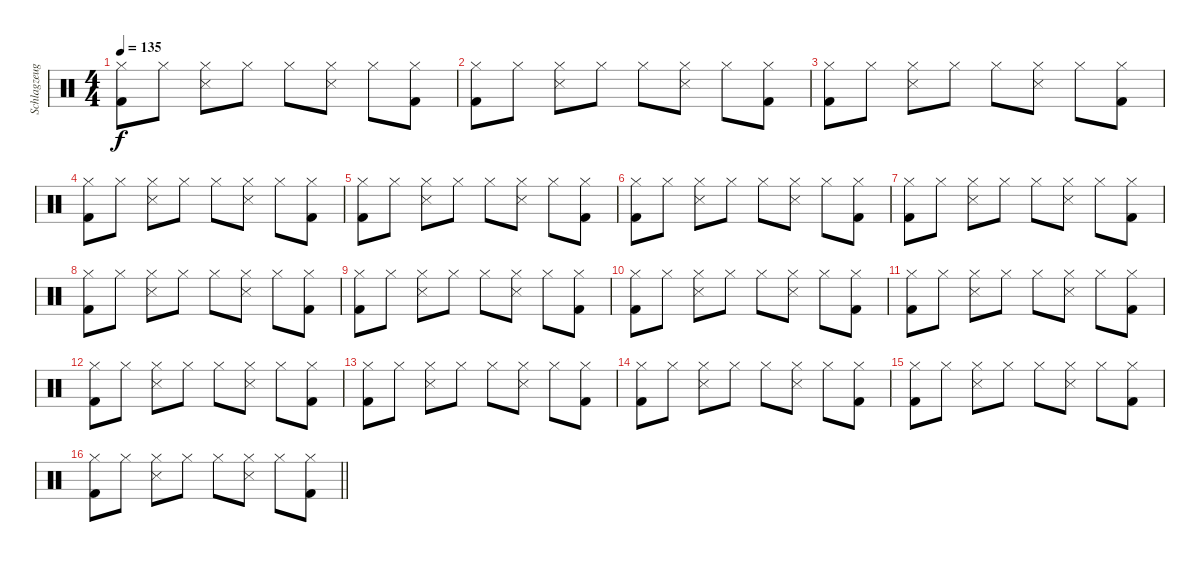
\track ("Schlagzeug" "Schlagzeug") {instrument percussion}
\staff {score}
\articulation defaults
\ts (4 4)
\tempo 135
\clef neutral
\ks c
("Hi-Hat (closed)" "Kick (hit) 2").8{dy f} "Hi-Hat (closed)".8 ("Hi-Hat (closed)" "Snare (side stick) 3").8 "Hi-Hat (closed)".8 "Hi-Hat (closed)".8 ("Hi-Hat (closed)" "Snare (side stick) 3").8 "Hi-Hat (closed)".8 ("Hi-Hat (closed)" "Kick (hit) 2").8 |
("Hi-Hat (closed)" "Kick (hit) 2").8 "Hi-Hat (closed)".8 ("Hi-Hat (closed)" "Snare (side stick) 3").8 "Hi-Hat (closed)".8 "Hi-Hat (closed)".8 ("Hi-Hat (closed)" "Snare (side stick) 3").8 "Hi-Hat (closed)".8 ("Hi-Hat (closed)" "Kick (hit) 2").8 |
("Hi-Hat (closed)" "Kick (hit) 2").8 "Hi-Hat (closed)".8 ("Hi-Hat (closed)" "Snare (side stick) 3").8 "Hi-Hat (closed)".8 "Hi-Hat (closed)".8 ("Hi-Hat (closed)" "Snare (side stick) 3").8 "Hi-Hat (closed)".8 ("Hi-Hat (closed)" "Kick (hit) 2").8 |
("Hi-Hat (closed)" "Kick (hit) 2").8 "Hi-Hat (closed)".8 ("Hi-Hat (closed)" "Snare (side stick) 3").8 "Hi-Hat (closed)".8 "Hi-Hat (closed)".8 ("Hi-Hat (closed)" "Snare (side stick) 3").8 "Hi-Hat (closed)".8 ("Hi-Hat (closed)" "Kick (hit) 2").8 |
("Hi-Hat (closed)" "Kick (hit) 2").8 "Hi-Hat (closed)".8 ("Hi-Hat (closed)" "Snare (side stick) 3").8 "Hi-Hat (closed)".8 "Hi-Hat (closed)".8 ("Hi-Hat (closed)" "Snare (side stick) 3").8 "Hi-Hat (closed)".8 ("Hi-Hat (closed)" "Kick (hit) 2").8 |
("Hi-Hat (closed)" "Kick (hit) 2").8 "Hi-Hat (closed)".8 ("Hi-Hat (closed)" "Snare (side stick) 3").8 "Hi-Hat (closed)".8 "Hi-Hat (closed)".8 ("Hi-Hat (closed)" "Snare (side stick) 3").8 "Hi-Hat (closed)".8 ("Hi-Hat (closed)" "Kick (hit) 2").8 |
("Hi-Hat (closed)" "Kick (hit) 2").8 "Hi-Hat (closed)".8 ("Hi-Hat (closed)" "Snare (side stick) 3").8 "Hi-Hat (closed)".8 "Hi-Hat (closed)".8 ("Hi-Hat (closed)" "Snare (side stick) 3").8 "Hi-Hat (closed)".8 ("Hi-Hat (closed)" "Kick (hit) 2").8 |
("Hi-Hat (closed)" "Kick (hit) 2").8 "Hi-Hat (closed)".8 ("Hi-Hat (closed)" "Snare (side stick) 3").8 "Hi-Hat (closed)".8 "Hi-Hat (closed)".8 ("Hi-Hat (closed)" "Snare (side stick) 3").8 "Hi-Hat (closed)".8 ("Hi-Hat (closed)" "Kick (hit) 2").8 |
("Hi-Hat (closed)" "Kick (hit) 2").8 "Hi-Hat (closed)".8 ("Hi-Hat (closed)" "Snare (side stick) 3").8 "Hi-Hat (closed)".8 "Hi-Hat (closed)".8 ("Hi-Hat (closed)" "Snare (side stick) 3").8 "Hi-Hat (closed)".8 ("Hi-Hat (closed)" "Kick (hit) 2").8 |
("Hi-Hat (closed)" "Kick (hit) 2").8 "Hi-Hat (closed)".8 ("Hi-Hat (closed)" "Snare (side stick) 3").8 "Hi-Hat (closed)".8 "Hi-Hat (closed)".8 ("Hi-Hat (closed)" "Snare (side stick) 3").8 "Hi-Hat (closed)".8 ("Hi-Hat (closed)" "Kick (hit) 2").8 |
("Hi-Hat (closed)" "Kick (hit) 2").8 "Hi-Hat (closed)".8 ("Hi-Hat (closed)" "Snare (side stick) 3").8 "Hi-Hat (closed)".8 "Hi-Hat (closed)".8 ("Hi-Hat (closed)" "Snare (side stick) 3").8 "Hi-Hat (closed)".8 ("Hi-Hat (closed)" "Kick (hit) 2").8 |
("Hi-Hat (closed)" "Kick (hit) 2").8 "Hi-Hat (closed)".8 ("Hi-Hat (closed)" "Snare (side stick) 3").8 "Hi-Hat (closed)".8 "Hi-Hat (closed)".8 ("Hi-Hat (closed)" "Snare (side stick) 3").8 "Hi-Hat (closed)".8 ("Hi-Hat (closed)" "Kick (hit) 2").8 |
("Hi-Hat (closed)" "Kick (hit) 2").8 "Hi-Hat (closed)".8 ("Hi-Hat (closed)" "Snare (side stick) 3").8 "Hi-Hat (closed)".8 "Hi-Hat (closed)".8 ("Hi-Hat (closed)" "Snare (side stick) 3").8 "Hi-Hat (closed)".8 ("Hi-Hat (closed)" "Kick (hit) 2").8 |
("Hi-Hat (closed)" "Kick (hit) 2").8 "Hi-Hat (closed)".8 ("Hi-Hat (closed)" "Snare (side stick) 3").8 "Hi-Hat (closed)".8 "Hi-Hat (closed)".8 ("Hi-Hat (closed)" "Snare (side stick) 3").8 "Hi-Hat (closed)".8 ("Hi-Hat (closed)" "Kick (hit) 2").8 |
("Hi-Hat (closed)" "Kick (hit) 2").8 "Hi-Hat (closed)".8 ("Hi-Hat (closed)" "Snare (side stick) 3").8 "Hi-Hat (closed)".8 "Hi-Hat (closed)".8 ("Hi-Hat (closed)" "Snare (side stick) 3").8 "Hi-Hat (closed)".8 ("Hi-Hat (closed)" "Kick (hit) 2").8 |
\barLineRight lightlight
("Hi-Hat (closed)" "Kick (hit) 2").8 "Hi-Hat (closed)".8 ("Hi-Hat (closed)" "Snare (side stick) 3").8 "Hi-Hat (closed)".8 "Hi-Hat (closed)".8 ("Hi-Hat (closed)" "Snare (side stick) 3").8 "Hi-Hat (closed)".8 ("Hi-Hat (closed)" "Kick (hit) 2").8
